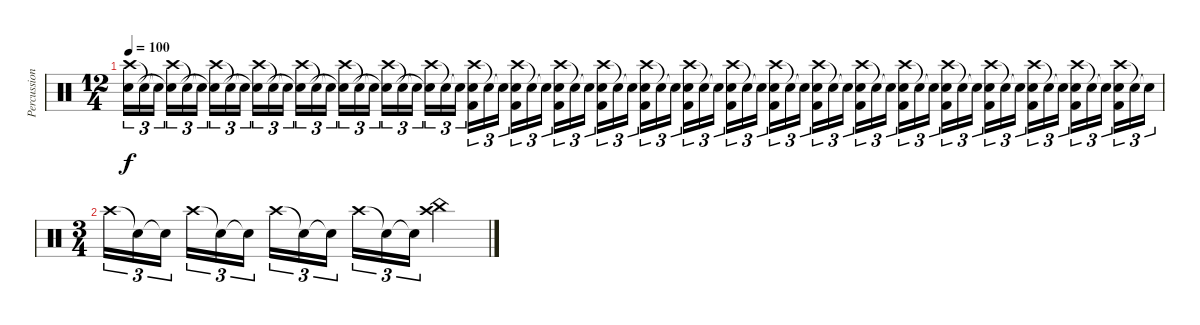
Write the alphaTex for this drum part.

\track ("Percussion" "Percussion") {instrument percussion}
\staff {score}
\articulation defaults
\ts (12 4)
\tempo 100
\clef neutral
\ks c
("Crash high (hit)" "Snare (hit)"{t}).16{tu (3 2) dy f} "Snare (hit)"{t}.16{tu (3 2)} "Snare (hit)"{t}.16{tu (3 2)} ("Crash high (hit)" "Snare (hit)"{t}).16{tu (3 2)} "Snare (hit)"{t}.16{tu (3 2)} "Snare (hit)"{t}.16{tu (3 2)} ("Crash high (hit)" "Snare (hit)"{t}).16{tu (3 2)} "Snare (hit)"{t}.16{tu (3 2)} "Snare (hit)"{t}.16{tu (3 2)} ("Crash high (hit)" "Snare (hit)"{t}).16{tu (3 2)} "Snare (hit)"{t}.16{tu (3 2)} "Snare (hit)"{t}.16{tu (3 2)} ("Crash high (hit)" "Snare (hit)"{t}).16{tu (3 2)} "Snare (hit)"{t}.16{tu (3 2)} "Snare (hit)"{t}.16{tu (3 2)} ("Crash high (hit)" "Snare (hit)"{t}).16{tu (3 2)} "Snare (hit)"{t}.16{tu (3 2)} "Snare (hit)"{t}.16{tu (3 2)} ("Crash high (hit)" "Snare (hit)"{t}).16{tu (3 2)} "Snare (hit)"{t}.16{tu (3 2)} "Snare (hit)"{t}.16{tu (3 2)} ("Crash high (hit)" "Snare (hit)"{t}).16{tu (3 2)} "Snare (hit)"{t}.16{tu (3 2)} "Snare (hit)"{t}.16{tu (3 2)} ("Crash high (hit)" "Snare (hit) 2" "Kick (hit) 2").16{tu (3 2)} "Snare (hit)"{t}.16{tu (3 2)} "Snare (hit)"{t}.16{tu (3 2)} ("Crash high (hit)" "Snare (hit) 2" "Kick (hit) 2").16{tu (3 2)} "Snare (hit)"{t}.16{tu (3 2)} "Snare (hit)"{t}.16{tu (3 2)} ("Crash high (hit)" "Snare (hit) 2" "Kick (hit) 2").16{tu (3 2)} "Snare (hit)"{t}.16{tu (3 2)} "Snare (hit)"{t}.16{tu (3 2)} ("Crash high (hit)" "Snare (hit) 2" "Kick (hit) 2").16{tu (3 2)} "Snare (hit)"{t}.16{tu (3 2)} "Snare (hit)"{t}.16{tu (3 2)} ("Crash high (hit)" "Snare (hit) 2" "Kick (hit) 2").16{tu (3 2)} "Snare (hit)"{t}.16{tu (3 2)} "Snare (hit)"{t}.16{tu (3 2)} ("Crash high (hit)" "Snare (hit) 2" "Kick (hit) 2").16{tu (3 2)} "Snare (hit)"{t}.16{tu (3 2)} "Snare (hit)"{t}.16{tu (3 2)} ("Crash high (hit)" "Snare (hit) 2" "Kick (hit) 2").16{tu (3 2)} "Snare (hit)"{t}.16{tu (3 2)} "Snare (hit)"{t}.16{tu (3 2)} ("Crash high (hit)" "Snare (hit) 2" "Kick (hit) 2").16{tu (3 2)} "Snare (hit)"{t}.16{tu (3 2)} "Snare (hit)"{t}.16{tu (3 2)} ("Crash high (hit)" "Snare (hit) 2" "Kick (hit) 2").16{tu (3 2)} "Snare (hit)"{t}.16{tu (3 2)} "Snare (hit)"{t}.16{tu (3 2)} ("Crash high (hit)" "Snare (hit) 2" "Kick (hit) 2").16{tu (3 2)} "Snare (hit)"{t}.16{tu (3 2)} "Snare (hit)"{t}.16{tu (3 2)} ("Crash high (hit)" "Snare (hit) 2" "Kick (hit) 2").16{tu (3 2)} "Snare (hit)"{t}.16{tu (3 2)} "Snare (hit)"{t}.16{tu (3 2)} ("Crash high (hit)" "Snare (hit) 2" "Kick (hit) 2").16{tu (3 2)} "Snare (hit)"{t}.16{tu (3 2)} "Snare (hit)"{t}.16{tu (3 2)} ("Crash high (hit)" "Snare (hit) 2" "Kick (hit) 2").16{tu (3 2)} "Snare (hit)"{t}.16{tu (3 2)} "Snare (hit)"{t}.16{tu (3 2)} ("Crash high (hit)" "Snare (hit) 2" "Kick (hit) 2").16{tu (3 2)} "Snare (hit)"{t}.16{tu (3 2)} "Snare (hit)"{t}.16{tu (3 2)} ("Crash high (hit)" "Snare (hit) 2" "Kick (hit) 2").16{tu (3 2)} "Snare (hit)"{t}.16{tu (3 2)} "Snare (hit)"{t}.16{tu (3 2)} ("Crash high (hit)" "Snare (hit) 2" "Kick (hit) 2").16{tu (3 2)} "Snare (hit)"{t}.16{tu (3 2)} "Snare (hit)"{t}.16{tu (3 2)} |
\ts (3 4)
"Crash high (hit)".16{tu (3 2)} "Snare (hit)"{t}.16{tu (3 2)} "Snare (hit)"{t}.16{tu (3 2)} "Crash high (hit)".16{tu (3 2)} "Snare (hit)"{t}.16{tu (3 2)} "Snare (hit)"{t}.16{tu (3 2)} "Crash high (hit)".16{tu (3 2)} "Snare (hit)"{t}.16{tu (3 2)} "Snare (hit)"{t}.16{tu (3 2)} "Crash high (hit)".16{tu (3 2)} "Snare (hit)"{t}.16{tu (3 2)} "Snare (hit)"{t}.16{tu (3 2)} ("Crash high (hit)" "China (hit)").4
